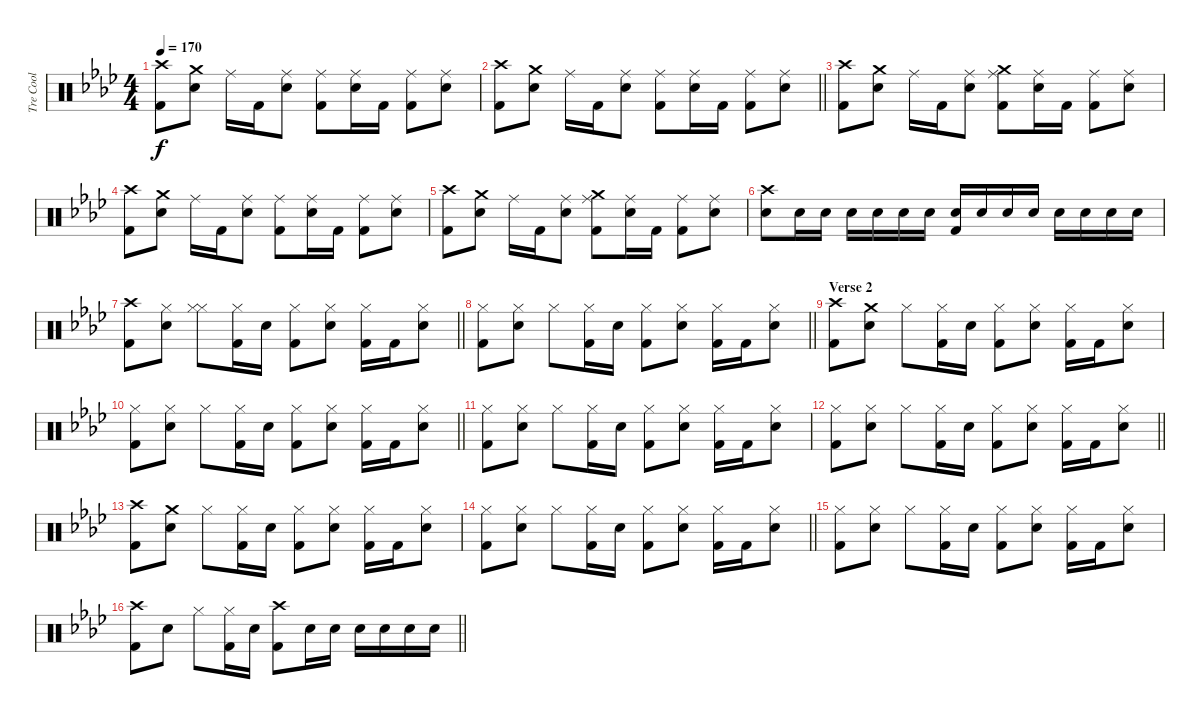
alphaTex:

\track ("Tre Cool" "Tre Cool") {instrument percussion}
\staff {score}
\articulation defaults
\ts (4 4)
\tempo 170
\clef neutral
\ks ab
("Crash high (hit)" "Kick (hit) 2").8{dy f} ("Crash medium (hit)" "Snare (hit) 2").8 "Ride (middle)".16 "Kick (hit) 2".16 ("Ride (middle)" "Snare (hit) 2").8 ("Ride (middle)" "Kick (hit) 2").8 ("Ride (middle)" "Snare (hit) 2").16 "Kick (hit) 2".16 ("Ride (middle)" "Kick (hit) 2").8 ("Ride (middle)" "Snare (hit) 2").8 |
\barLineRight lightlight
("Crash high (hit)" "Kick (hit) 2").8 ("Crash medium (hit)" "Snare (hit) 2").8 "Ride (middle)".16 "Kick (hit) 2".16 ("Ride (middle)" "Snare (hit) 2").8 ("Ride (middle)" "Kick (hit) 2").8 ("Ride (middle)" "Snare (hit) 2").16 "Kick (hit) 2".16 ("Ride (middle)" "Kick (hit) 2").8 ("Ride (middle)" "Snare (hit) 2").8 |
("Crash high (hit)" "Kick (hit) 2").8 ("Crash medium (hit)" "Snare (hit) 2").8 "Ride (middle)".16 "Kick (hit) 2".16 ("Ride (middle)" "Snare (hit) 2").8 ("Crash medium (hit)" "Ride (middle)" "Kick (hit) 2").8 ("Ride (middle)" "Snare (hit) 2").16 "Kick (hit) 2".16 ("Ride (middle)" "Kick (hit) 2").8 ("Ride (middle)" "Snare (hit) 2").8 |
("Crash high (hit)" "Kick (hit) 2").8 ("Crash medium (hit)" "Snare (hit) 2").8 "Ride (middle)".16 "Kick (hit) 2".16 ("Ride (middle)" "Snare (hit) 2").8 ("Ride (middle)" "Kick (hit) 2").8 ("Ride (middle)" "Snare (hit) 2").16 "Kick (hit) 2".16 ("Ride (middle)" "Kick (hit) 2").8 ("Ride (middle)" "Snare (hit) 2").8 |
("Crash high (hit)" "Kick (hit) 2").8 ("Crash medium (hit)" "Snare (hit) 2").8 "Ride (middle)".16 "Kick (hit) 2".16 ("Ride (middle)" "Snare (hit) 2").8 ("Crash medium (hit)" "Ride (middle)" "Kick (hit) 2").8 ("Ride (middle)" "Snare (hit) 2").16 "Kick (hit) 2".16 ("Ride (middle)" "Kick (hit) 2").8 ("Ride (middle)" "Snare (hit) 2").8 |
("Snare (hit) 2" "Crash high (hit)").8 "Snare (hit) 2".16 "Snare (hit) 2".16 "Snare (hit) 2".16 "Snare (hit) 2".16 "Snare (hit) 2".16 "Snare (hit) 2".16 ("Snare (hit) 2" "Kick (hit) 2").16 "Snare (hit) 2".16 "Snare (hit) 2".16 "Snare (hit) 2".16 "Snare (hit) 2".16 "Snare (hit) 2".16 "Snare (hit) 2".16 "Snare (hit) 2".16 |
\barLineRight lightlight
("Crash high (hit)" "Kick (hit) 2").8 ("Hi-Hat (closed)" "Snare (hit) 2").8 ("Hi-Hat (closed)" "Hi-Hat (closed)").8 ("Hi-Hat (closed)" "Kick (hit) 2").16 "Snare (hit) 2".16 ("Hi-Hat (closed)" "Kick (hit) 2").8 ("Hi-Hat (closed)" "Snare (hit) 2").8 ("Hi-Hat (closed)" "Kick (hit) 2").16 "Kick (hit) 2".16 ("Hi-Hat (closed)" "Snare (hit) 2").8 |
\barLineRight lightlight
("Hi-Hat (closed)" "Kick (hit) 2").8 ("Hi-Hat (closed)" "Snare (hit) 2").8 "Hi-Hat (closed)".8 ("Hi-Hat (closed)" "Kick (hit) 2").16 "Snare (hit) 2".16 ("Hi-Hat (closed)" "Kick (hit) 2").8 ("Hi-Hat (closed)" "Snare (hit) 2").8 ("Hi-Hat (closed)" "Kick (hit) 2").16 "Kick (hit) 2".16 ("Hi-Hat (closed)" "Snare (hit) 2").8 |
\section ("" "Verse 2")
("Crash high (hit)" "Kick (hit) 2").8 ("Crash medium (hit)" "Snare (hit) 2").8 "Hi-Hat (closed)".8 ("Hi-Hat (closed)" "Kick (hit) 2").16 "Snare (hit) 2".16 ("Hi-Hat (closed)" "Kick (hit) 2").8 ("Hi-Hat (closed)" "Snare (hit) 2").8 ("Hi-Hat (closed)" "Kick (hit) 2").16 "Kick (hit) 2".16 ("Hi-Hat (closed)" "Snare (hit) 2").8 |
\barLineRight lightlight
("Hi-Hat (closed)" "Kick (hit) 2").8 ("Hi-Hat (closed)" "Snare (hit) 2").8 "Hi-Hat (closed)".8 ("Hi-Hat (closed)" "Kick (hit) 2").16 "Snare (hit) 2".16 ("Hi-Hat (closed)" "Kick (hit) 2").8 ("Hi-Hat (closed)" "Snare (hit) 2").8 ("Hi-Hat (closed)" "Kick (hit) 2").16 "Kick (hit) 2".16 ("Hi-Hat (closed)" "Snare (hit) 2").8 |
("Hi-Hat (closed)" "Kick (hit) 2").8 ("Hi-Hat (closed)" "Snare (hit) 2").8 "Hi-Hat (closed)".8 ("Hi-Hat (closed)" "Kick (hit) 2").16 "Snare (hit) 2".16 ("Hi-Hat (closed)" "Kick (hit) 2").8 ("Hi-Hat (closed)" "Snare (hit) 2").8 ("Hi-Hat (closed)" "Kick (hit) 2").16 "Kick (hit) 2".16 ("Hi-Hat (closed)" "Snare (hit) 2").8 |
\barLineRight lightlight
("Hi-Hat (closed)" "Kick (hit) 2").8 ("Hi-Hat (closed)" "Snare (hit) 2").8 "Hi-Hat (closed)".8 ("Hi-Hat (closed)" "Kick (hit) 2").16 "Snare (hit) 2".16 ("Hi-Hat (closed)" "Kick (hit) 2").8 ("Hi-Hat (closed)" "Snare (hit) 2").8 ("Hi-Hat (closed)" "Kick (hit) 2").16 "Kick (hit) 2".16 ("Hi-Hat (closed)" "Snare (hit) 2").8 |
("Crash high (hit)" "Kick (hit) 2").8 ("Crash medium (hit)" "Snare (hit) 2").8 "Hi-Hat (closed)".8 ("Hi-Hat (closed)" "Kick (hit) 2").16 "Snare (hit) 2".16 ("Hi-Hat (closed)" "Kick (hit) 2").8 ("Hi-Hat (closed)" "Snare (hit) 2").8 ("Hi-Hat (closed)" "Kick (hit) 2").16 "Kick (hit) 2".16 ("Hi-Hat (closed)" "Snare (hit) 2").8 |
\barLineRight lightlight
("Hi-Hat (closed)" "Kick (hit) 2").8 ("Hi-Hat (closed)" "Snare (hit) 2").8 "Hi-Hat (closed)".8 ("Hi-Hat (closed)" "Kick (hit) 2").16 "Snare (hit) 2".16 ("Hi-Hat (closed)" "Kick (hit) 2").8 ("Hi-Hat (closed)" "Snare (hit) 2").8 ("Hi-Hat (closed)" "Kick (hit) 2").16 "Kick (hit) 2".16 ("Hi-Hat (closed)" "Snare (hit) 2").8 |
("Hi-Hat (closed)" "Kick (hit) 2").8 ("Hi-Hat (closed)" "Snare (hit) 2").8 "Hi-Hat (closed)".8 ("Hi-Hat (closed)" "Kick (hit) 2").16 "Snare (hit) 2".16 ("Hi-Hat (closed)" "Kick (hit) 2").8 ("Hi-Hat (closed)" "Snare (hit) 2").8 ("Hi-Hat (closed)" "Kick (hit) 2").16 "Kick (hit) 2".16 ("Hi-Hat (closed)" "Snare (hit) 2").8 |
\barLineRight lightlight
("Crash high (hit)" "Kick (hit) 2").8 "Snare (hit) 2".8 "Hi-Hat (closed)".8 ("Hi-Hat (closed)" "Kick (hit) 2").16 "Snare (hit) 2".16 ("Crash high (hit)" "Kick (hit) 2").8 "Snare (hit) 2".16 "Snare (hit) 2".16 "Snare (hit) 2".16 "Snare (hit) 2".16 "Snare (hit) 2".16 "Snare (hit) 2".16
